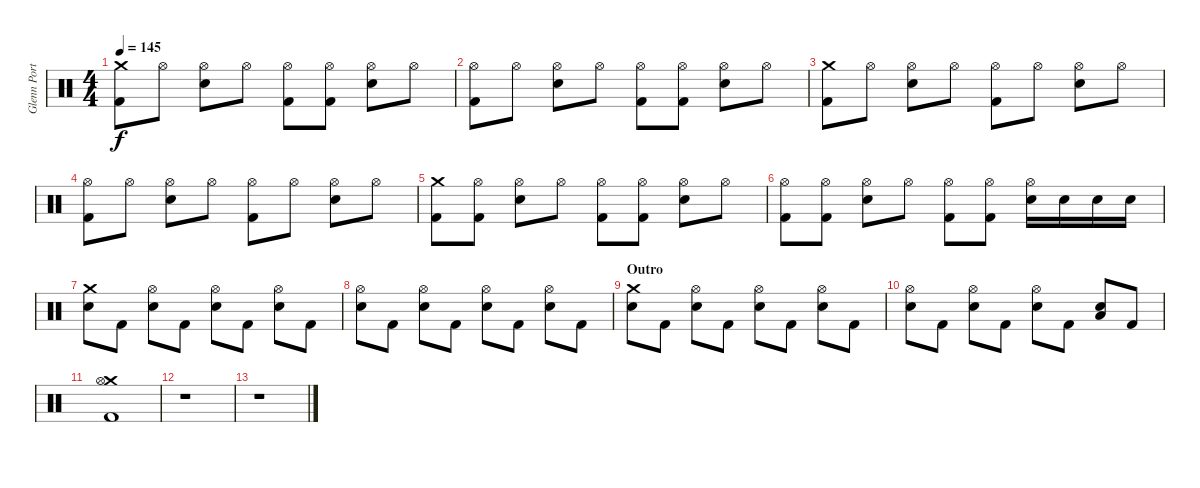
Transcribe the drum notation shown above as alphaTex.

\track ("Glenn Porter - Drums" "Glenn Port") {instrument percussion}
\staff {score}
\articulation defaults
\ts (4 4)
\tempo 145
\clef neutral
\ks c
("Crash medium (hit)" "Kick (hit) 2").8{dy f} "Hi-Hat (open)".8 ("Hi-Hat (open)" "Electric Snare (hit)").8 "Hi-Hat (open)".8 ("Hi-Hat (open)" "Kick (hit) 2").8 ("Hi-Hat (open)" "Kick (hit) 2").8 ("Hi-Hat (open)" "Electric Snare (hit)").8 "Hi-Hat (open)".8 |
("Hi-Hat (open)" "Kick (hit) 2").8 "Hi-Hat (open)".8 ("Hi-Hat (open)" "Electric Snare (hit)").8 "Hi-Hat (open)".8 ("Hi-Hat (open)" "Kick (hit) 2").8 ("Hi-Hat (open)" "Kick (hit) 2").8 ("Hi-Hat (open)" "Electric Snare (hit)").8 "Hi-Hat (open)".8 |
("Crash medium (hit)" "Kick (hit) 2").8 "Hi-Hat (open)".8 ("Hi-Hat (open)" "Electric Snare (hit)").8 "Hi-Hat (open)".8 ("Hi-Hat (open)" "Kick (hit) 2").8 "Hi-Hat (open)".8 ("Hi-Hat (open)" "Electric Snare (hit)").8 "Hi-Hat (open)".8 |
("Hi-Hat (open)" "Kick (hit) 2").8 "Hi-Hat (open)".8 ("Hi-Hat (open)" "Electric Snare (hit)").8 "Hi-Hat (open)".8 ("Hi-Hat (open)" "Kick (hit) 2").8 "Hi-Hat (open)".8 ("Hi-Hat (open)" "Electric Snare (hit)").8 "Hi-Hat (open)".8 |
("Crash medium (hit)" "Kick (hit) 2").8 ("Hi-Hat (open)" "Kick (hit) 2").8 ("Hi-Hat (open)" "Electric Snare (hit)").8 "Hi-Hat (open)".8 ("Hi-Hat (open)" "Kick (hit) 2").8 ("Hi-Hat (open)" "Kick (hit) 2").8 ("Hi-Hat (open)" "Electric Snare (hit)").8 "Hi-Hat (open)".8 |
("Hi-Hat (open)" "Kick (hit) 2").8 ("Hi-Hat (open)" "Kick (hit) 2").8 ("Hi-Hat (open)" "Electric Snare (hit)").8 "Hi-Hat (open)".8 ("Hi-Hat (open)" "Kick (hit) 2").8 ("Hi-Hat (open)" "Kick (hit) 2").8 ("Hi-Hat (open)" "Electric Snare (hit)").16 "Electric Snare (hit)".16 "Electric Snare (hit)".16 "Electric Snare (hit)".16 |
("Crash medium (hit)" "Electric Snare (hit)").8 "Kick (hit) 2".8 ("Hi-Hat (open)" "Electric Snare (hit)").8 "Kick (hit) 2".8 ("Hi-Hat (open)" "Electric Snare (hit)").8 "Kick (hit) 2".8 ("Hi-Hat (open)" "Electric Snare (hit)").8 "Kick (hit) 2".8 |
("Hi-Hat (open)" "Electric Snare (hit)").8 "Kick (hit) 2".8 ("Hi-Hat (open)" "Electric Snare (hit)").8 "Kick (hit) 2".8 ("Hi-Hat (open)" "Electric Snare (hit)").8 "Kick (hit) 2".8 ("Hi-Hat (open)" "Electric Snare (hit)").8 "Kick (hit) 2".8 |
\section ("" "Outro")
("Crash medium (hit)" "Electric Snare (hit)").8 "Kick (hit) 2".8 ("Hi-Hat (open)" "Electric Snare (hit)").8 "Kick (hit) 2".8 ("Hi-Hat (open)" "Electric Snare (hit)").8 "Kick (hit) 2".8 ("Hi-Hat (open)" "Electric Snare (hit)").8 "Kick (hit) 2".8 |
("Hi-Hat (open)" "Electric Snare (hit)").8 "Kick (hit) 2".8 ("Hi-Hat (open)" "Electric Snare (hit)").8 "Kick (hit) 2".8 ("Hi-Hat (open)" "Electric Snare (hit)").8 "Kick (hit) 2".8 ("Electric Snare (hit)" "Low Tom (hit)").8 "Kick (hit) 2".8 |
("Crash medium (hit)" "Hi-Hat (open)" "Kick (hit) 2").1 |
r.1 |
r.1
